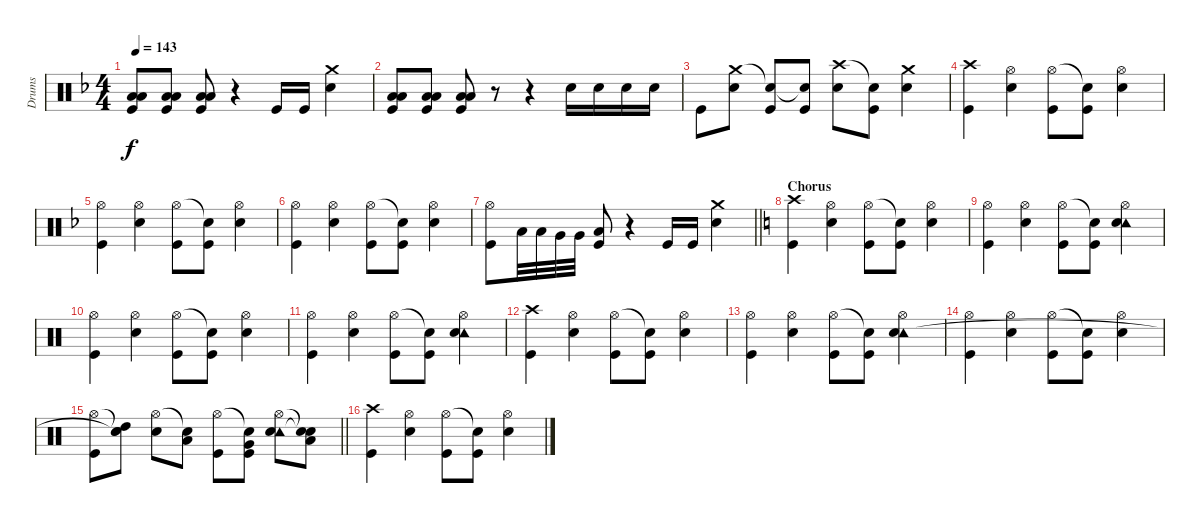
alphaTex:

\track ("Drums" "Drums") {instrument percussion}
\staff {score}
\articulation defaults
\ts (4 4)
\tempo 143
\clef neutral
\ks f
("Low Floor Tom (hit)" "Low Tom (hit)" "Kick (hit)").8{dy f} ("Low Floor Tom (hit)" "Low Tom (hit)" "Kick (hit)").8 ("Low Floor Tom (hit)" "Low Tom (hit)" "Kick (hit)").8 r.4 "Kick (hit)".16 "Kick (hit)".16 ("Crash medium (hit)" "Electric Snare (hit)").4 |
("Low Floor Tom (hit)" "Low Tom (hit)" "Kick (hit)").8 ("Low Floor Tom (hit)" "Low Tom (hit)" "Kick (hit)").8 ("Low Floor Tom (hit)" "Low Tom (hit)" "Kick (hit)").8 r.8 r.4 "Electric Snare (hit)".16 "Electric Snare (hit)".16 "Electric Snare (hit)".16 "Electric Snare (hit)".16 |
"Kick (hit)".8 ("Crash medium (hit)" "Electric Snare (hit)").8 ("Snare (hit)"{t} "Kick (hit)").8 ("Snare (hit)"{t} "Kick (hit)").8 ("Crash high (hit)" "Electric Snare (hit)").8 ("Snare (hit)"{t} "Kick (hit)").8 ("Crash medium (hit)" "Electric Snare (hit)").4 |
("Crash high (hit)" "Kick (hit)").4 ("Hi-Hat (open)" "Electric Snare (hit)").4 ("Hi-Hat (open)" "Kick (hit)").8 ("Snare (hit)"{t} "Kick (hit)").8 ("Hi-Hat (open)" "Electric Snare (hit)").4 |
("Hi-Hat (open)" "Kick (hit)").4 ("Hi-Hat (open)" "Electric Snare (hit)").4 ("Hi-Hat (open)" "Kick (hit)").8 ("Snare (hit)"{t} "Kick (hit)").8 ("Hi-Hat (open)" "Electric Snare (hit)").4 |
("Hi-Hat (open)" "Kick (hit)").4 ("Hi-Hat (open)" "Electric Snare (hit)").4 ("Hi-Hat (open)" "Kick (hit)").8 ("Snare (hit)"{t} "Kick (hit)").8 ("Hi-Hat (open)" "Electric Snare (hit)").4 |
\barLineRight lightlight
("Hi-Hat (open)" "Kick (hit)").8 "Low Tom (hit)".32 "Low Tom (hit)".32 "Very Low Tom (hit)".32 "Very Low Tom (hit)".32 ("Low Floor Tom (hit)" "Kick (hit)").8 r.4 "Kick (hit)".16 "Kick (hit)".16 ("Crash medium (hit)" "Electric Snare (hit)").4 |
\section ("" "Chorus")
\ks c
("Crash high (hit)" "Kick (hit)").4 ("Hi-Hat (open)" "Electric Snare (hit)").4 ("Hi-Hat (open)" "Kick (hit)").8 ("Snare (hit)"{t} "Kick (hit)").8 ("Hi-Hat (open)" "Electric Snare (hit)").4 |
("Hi-Hat (open)" "Kick (hit)").4 ("Hi-Hat (open)" "Electric Snare (hit)").4 ("Hi-Hat (open)" "Kick (hit)").8 ("Snare (hit)"{t} "Kick (hit)").8 ("Tambourine (hit)" "Hi-Hat (open)" "Electric Snare (hit)").4 |
("Hi-Hat (open)" "Kick (hit)").4 ("Hi-Hat (open)" "Electric Snare (hit)").4 ("Hi-Hat (open)" "Kick (hit)").8 ("Snare (hit)"{t} "Kick (hit)").8 ("Hi-Hat (open)" "Electric Snare (hit)").4 |
("Hi-Hat (open)" "Kick (hit)").4 ("Hi-Hat (open)" "Electric Snare (hit)").4 ("Hi-Hat (open)" "Kick (hit)").8 ("Snare (hit)"{t} "Kick (hit)").8 ("Tambourine (hit)" "Hi-Hat (open)" "Electric Snare (hit)").4 |
("Crash high (hit)" "Kick (hit)").4 ("Hi-Hat (open)" "Electric Snare (hit)").4 ("Hi-Hat (open)" "Kick (hit)").8 ("Snare (hit)"{t} "Kick (hit)").8 ("Hi-Hat (open)" "Electric Snare (hit)").4 |
("Hi-Hat (open)" "Kick (hit)").4 ("Hi-Hat (open)" "Electric Snare (hit)").4 ("Hi-Hat (open)" "Kick (hit)").8 ("Snare (hit)"{t} "Kick (hit)").8 ("Tambourine (hit)" "Hi-Hat (open)" "Electric Snare (hit)").4 |
("Hi-Hat (open)" "Kick (hit)").4 ("Hi-Hat (open)" "Electric Snare (hit)").4 ("Hi-Hat (open)" "Kick (hit)").8 ("Snare (hit)"{t} "Kick (hit)").8 ("Hi-Hat (open)" "Electric Snare (hit)").4 |
\barLineRight lightlight
("Hi-Hat (open)" "Kick (hit)").8 ("Snare (hit)"{t} "High Tom (hit)" "Snare (hit)"{t}).8 ("Hi-Hat (open)" "Electric Snare (hit)").8 ("Snare (hit)"{t} "Low Tom (hit)").8 ("Hi-Hat (open)" "Kick (hit)").8 ("Snare (hit)"{t} "Very Low Tom (hit)" "Kick (hit)").8 ("Tambourine (hit)" "Hi-Hat (open)" "Electric Snare (hit)").8 ("Snare (hit)"{t} "Snare (hit)"{t} "Low Floor Tom (hit)").8 |
("Crash high (hit)" "Kick (hit)").4 ("Hi-Hat (open)" "Electric Snare (hit)").4 ("Hi-Hat (open)" "Kick (hit)").8 ("Snare (hit)"{t} "Kick (hit)").8 ("Hi-Hat (open)" "Electric Snare (hit)").4
